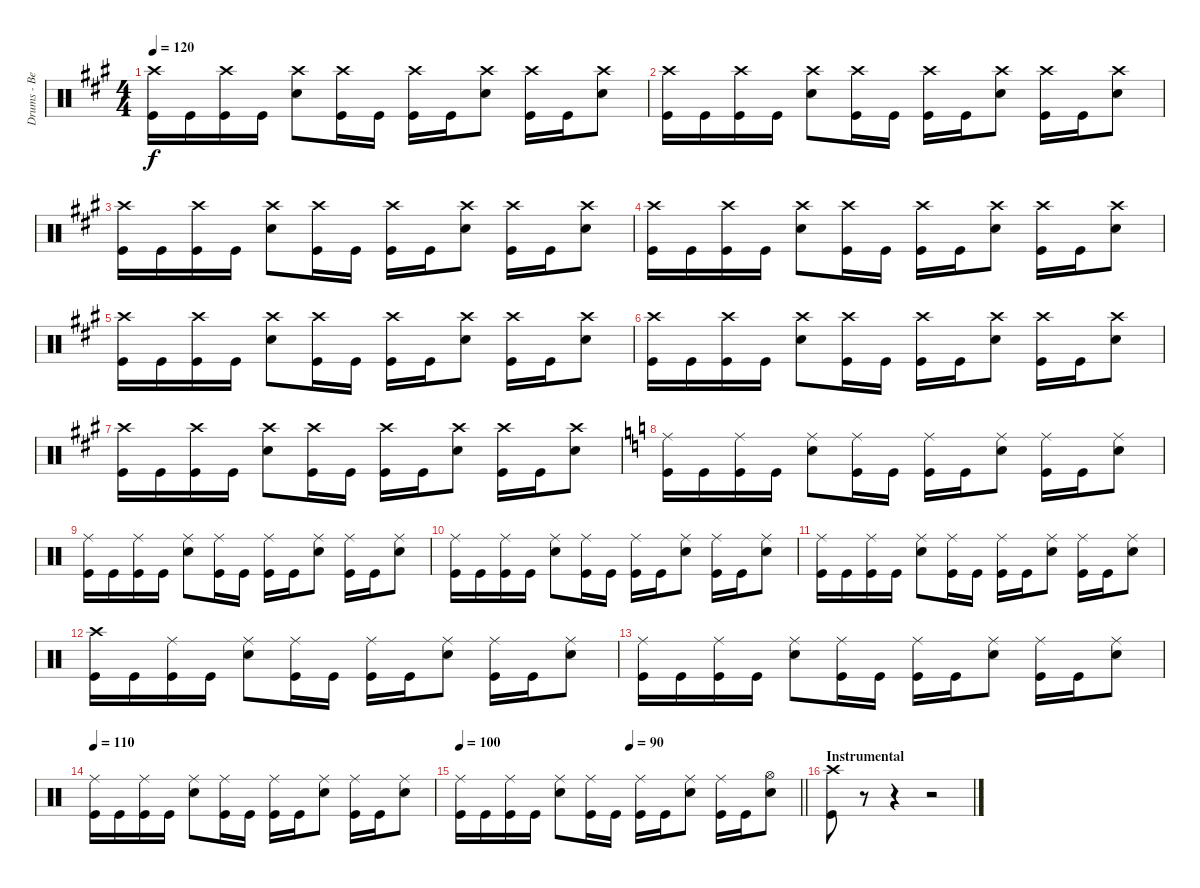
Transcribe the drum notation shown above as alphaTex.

\track ("Drums - Ben Johnston" "Drums - Be") {instrument percussion}
\staff {score}
\articulation defaults
\ts (4 4)
\tempo 120
\clef neutral
\ks f#minor
("Crash high (hit)" "Kick (hit)").16{dy f} "Kick (hit)".16 ("Crash high (hit)" "Kick (hit)").16 "Kick (hit)".16 ("Crash high (hit)" "Snare (hit) 2").8 ("Crash high (hit)" "Kick (hit)").16 "Kick (hit)".16 ("Crash high (hit)" "Kick (hit)").16 "Kick (hit)".16 ("Crash high (hit)" "Snare (hit) 2").8 ("Crash high (hit)" "Kick (hit)").16 "Kick (hit)".16 ("Crash high (hit)" "Snare (hit) 2").8 |
("Crash high (hit)" "Kick (hit)").16 "Kick (hit)".16 ("Crash high (hit)" "Kick (hit)").16 "Kick (hit)".16 ("Crash high (hit)" "Snare (hit) 2").8 ("Crash high (hit)" "Kick (hit)").16 "Kick (hit)".16 ("Crash high (hit)" "Kick (hit)").16 "Kick (hit)".16 ("Crash high (hit)" "Snare (hit) 2").8 ("Crash high (hit)" "Kick (hit)").16 "Kick (hit)".16 ("Crash high (hit)" "Snare (hit) 2").8 |
("Crash high (hit)" "Kick (hit)").16 "Kick (hit)".16 ("Crash high (hit)" "Kick (hit)").16 "Kick (hit)".16 ("Crash high (hit)" "Snare (hit) 2").8 ("Crash high (hit)" "Kick (hit)").16 "Kick (hit)".16 ("Crash high (hit)" "Kick (hit)").16 "Kick (hit)".16 ("Crash high (hit)" "Snare (hit) 2").8 ("Crash high (hit)" "Kick (hit)").16 "Kick (hit)".16 ("Crash high (hit)" "Snare (hit) 2").8 |
("Crash high (hit)" "Kick (hit)").16 "Kick (hit)".16 ("Crash high (hit)" "Kick (hit)").16 "Kick (hit)".16 ("Crash high (hit)" "Snare (hit) 2").8 ("Crash high (hit)" "Kick (hit)").16 "Kick (hit)".16 ("Crash high (hit)" "Kick (hit)").16 "Kick (hit)".16 ("Crash high (hit)" "Snare (hit) 2").8 ("Crash high (hit)" "Kick (hit)").16 "Kick (hit)".16 ("Crash high (hit)" "Snare (hit) 2").8 |
("Crash high (hit)" "Kick (hit)").16 "Kick (hit)".16 ("Crash high (hit)" "Kick (hit)").16 "Kick (hit)".16 ("Crash high (hit)" "Snare (hit) 2").8 ("Crash high (hit)" "Kick (hit)").16 "Kick (hit)".16 ("Crash high (hit)" "Kick (hit)").16 "Kick (hit)".16 ("Crash high (hit)" "Snare (hit) 2").8 ("Crash high (hit)" "Kick (hit)").16 "Kick (hit)".16 ("Crash high (hit)" "Snare (hit) 2").8 |
("Crash high (hit)" "Kick (hit)").16 "Kick (hit)".16 ("Crash high (hit)" "Kick (hit)").16 "Kick (hit)".16 ("Crash high (hit)" "Snare (hit) 2").8 ("Crash high (hit)" "Kick (hit)").16 "Kick (hit)".16 ("Crash high (hit)" "Kick (hit)").16 "Kick (hit)".16 ("Crash high (hit)" "Snare (hit) 2").8 ("Crash high (hit)" "Kick (hit)").16 "Kick (hit)".16 ("Crash high (hit)" "Snare (hit) 2").8 |
("Crash high (hit)" "Kick (hit)").16 "Kick (hit)".16 ("Crash high (hit)" "Kick (hit)").16 "Kick (hit)".16 ("Crash high (hit)" "Snare (hit) 2").8 ("Crash high (hit)" "Kick (hit)").16 "Kick (hit)".16 ("Crash high (hit)" "Kick (hit)").16 "Kick (hit)".16 ("Crash high (hit)" "Snare (hit) 2").8 ("Crash high (hit)" "Kick (hit)").16 "Kick (hit)".16 ("Crash high (hit)" "Snare (hit) 2").8 |
\ks c
("Ride (middle)" "Kick (hit)").16 "Kick (hit)".16 ("Ride (middle)" "Kick (hit)").16 "Kick (hit)".16 ("Ride (middle)" "Snare (hit) 2").8 ("Ride (middle)" "Kick (hit)").16 "Kick (hit)".16 ("Ride (middle)" "Kick (hit)").16 "Kick (hit)".16 ("Ride (middle)" "Snare (hit) 2").8 ("Ride (middle)" "Kick (hit)").16 "Kick (hit)".16 ("Ride (middle)" "Snare (hit) 2").8 |
("Ride (middle)" "Kick (hit)").16 "Kick (hit)".16 ("Ride (middle)" "Kick (hit)").16 "Kick (hit)".16 ("Ride (middle)" "Snare (hit) 2").8 ("Ride (middle)" "Kick (hit)").16 "Kick (hit)".16 ("Ride (middle)" "Kick (hit)").16 "Kick (hit)".16 ("Ride (middle)" "Snare (hit) 2").8 ("Ride (middle)" "Kick (hit)").16 "Kick (hit)".16 ("Ride (middle)" "Snare (hit) 2").8 |
("Ride (middle)" "Kick (hit)").16 "Kick (hit)".16 ("Ride (middle)" "Kick (hit)").16 "Kick (hit)".16 ("Ride (middle)" "Snare (hit) 2").8 ("Ride (middle)" "Kick (hit)").16 "Kick (hit)".16 ("Ride (middle)" "Kick (hit)").16 "Kick (hit)".16 ("Ride (middle)" "Snare (hit) 2").8 ("Ride (middle)" "Kick (hit)").16 "Kick (hit)".16 ("Ride (middle)" "Snare (hit) 2").8 |
("Ride (middle)" "Kick (hit)").16 "Kick (hit)".16 ("Ride (middle)" "Kick (hit)").16 "Kick (hit)".16 ("Ride (middle)" "Snare (hit) 2").8 ("Ride (middle)" "Kick (hit)").16 "Kick (hit)".16 ("Ride (middle)" "Kick (hit)").16 "Kick (hit)".16 ("Ride (middle)" "Snare (hit) 2").8 ("Ride (middle)" "Kick (hit)").16 "Kick (hit)".16 ("Ride (middle)" "Snare (hit) 2").8 |
("Crash high (hit)" "Kick (hit)").16 "Kick (hit)".16 ("Ride (middle)" "Kick (hit)").16 "Kick (hit)".16 ("Ride (middle)" "Snare (hit) 2").8 ("Ride (middle)" "Kick (hit)").16 "Kick (hit)".16 ("Ride (middle)" "Kick (hit)").16 "Kick (hit)".16 ("Ride (middle)" "Snare (hit) 2").8 ("Ride (middle)" "Kick (hit)").16 "Kick (hit)".16 ("Ride (middle)" "Snare (hit) 2").8 |
("Ride (middle)" "Kick (hit)").16 "Kick (hit)".16 ("Ride (middle)" "Kick (hit)").16 "Kick (hit)".16 ("Ride (middle)" "Snare (hit) 2").8 ("Ride (middle)" "Kick (hit)").16 "Kick (hit)".16 ("Ride (middle)" "Kick (hit)").16 "Kick (hit)".16 ("Ride (middle)" "Snare (hit) 2").8 ("Ride (middle)" "Kick (hit)").16 "Kick (hit)".16 ("Ride (middle)" "Snare (hit) 2").8 |
\tempo 110
("Ride (middle)" "Kick (hit)").16 "Kick (hit)".16 ("Ride (middle)" "Kick (hit)").16 "Kick (hit)".16 ("Ride (middle)" "Snare (hit) 2").8 ("Ride (middle)" "Kick (hit)").16 "Kick (hit)".16 ("Ride (middle)" "Kick (hit)").16 "Kick (hit)".16 ("Ride (middle)" "Snare (hit) 2").8 ("Ride (middle)" "Kick (hit)").16 "Kick (hit)".16 ("Ride (middle)" "Snare (hit) 2").8 |
\tempo 100
\tempo (90 0.5)
\barLineRight lightlight
("Ride (middle)" "Kick (hit)").16 "Kick (hit)".16 ("Ride (middle)" "Kick (hit)").16 "Kick (hit)".16 ("Ride (middle)" "Snare (hit) 2").8 ("Ride (middle)" "Kick (hit)").16 "Kick (hit)".16 ("Ride (middle)" "Kick (hit)").16 "Kick (hit)".16 ("Ride (middle)" "Snare (hit) 2").8 ("Ride (middle)" "Kick (hit)").16 "Kick (hit)".16 ("Hi-Hat (open)" "Snare (hit) 2").8 |
\section ("" "Instrumental")
("Crash high (hit)" "Kick (hit)").8 r.8 r.4 r.2
